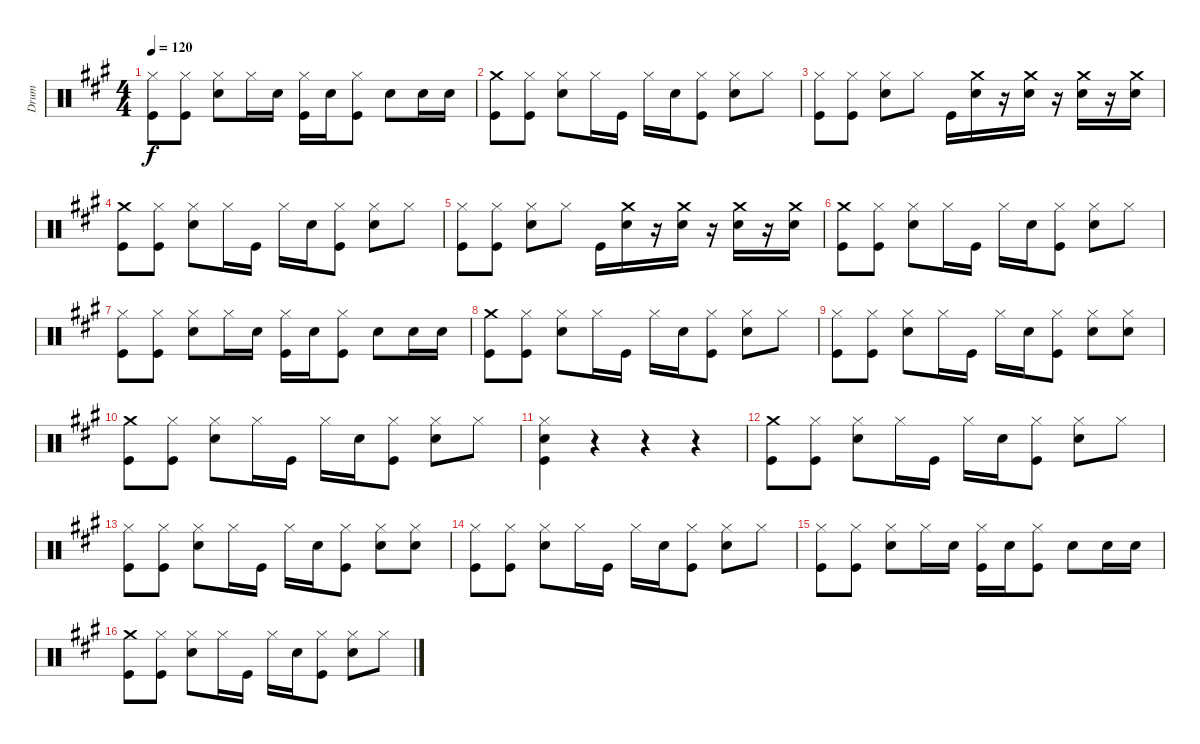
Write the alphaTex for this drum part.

\track ("Drum" "Drum") {instrument percussion}
\staff {score}
\articulation defaults
\ts (4 4)
\tempo 120
\clef neutral
\ks a
("Hi-Hat (closed)" "Kick (hit)").8{dy f} ("Hi-Hat (closed)" "Kick (hit)").8 ("Hi-Hat (closed)" "Snare (hit) 2").8 "Hi-Hat (closed)".16 "Snare (hit) 2".16 ("Hi-Hat (closed)" "Kick (hit)").16 "Snare (hit) 2".16 ("Hi-Hat (closed)" "Kick (hit)").8 "Snare (hit) 2".8 "Snare (hit) 2".16 "Snare (hit) 2".16 |
("Crash medium (hit)" "Kick (hit)").8 ("Hi-Hat (closed)" "Kick (hit)").8 ("Hi-Hat (closed)" "Snare (hit) 2").8 "Hi-Hat (closed)".16 "Kick (hit)".16 "Hi-Hat (closed)".16 "Snare (hit) 2".16 ("Hi-Hat (closed)" "Kick (hit)").8 ("Hi-Hat (closed)" "Snare (hit) 2").8 "Hi-Hat (closed)".8 |
("Hi-Hat (closed)" "Kick (hit)").8 ("Hi-Hat (closed)" "Kick (hit)").8 ("Hi-Hat (closed)" "Snare (hit) 2").8 "Hi-Hat (closed)".8 "Kick (hit)".16 ("Crash medium (hit)" "Snare (hit) 2").16 r.16 ("Crash medium (hit)" "Snare (hit) 2").16 r.16 ("Crash medium (hit)" "Snare (hit) 2").16 r.16 ("Crash medium (hit)" "Snare (hit) 2").16 |
("Crash medium (hit)" "Kick (hit)").8 ("Hi-Hat (closed)" "Kick (hit)").8 ("Hi-Hat (closed)" "Snare (hit) 2").8 "Hi-Hat (closed)".16 "Kick (hit)".16 "Hi-Hat (closed)".16 "Snare (hit) 2".16 ("Hi-Hat (closed)" "Kick (hit)").8 ("Hi-Hat (closed)" "Snare (hit) 2").8 "Hi-Hat (closed)".8 |
("Hi-Hat (closed)" "Kick (hit)").8 ("Hi-Hat (closed)" "Kick (hit)").8 ("Hi-Hat (closed)" "Snare (hit) 2").8 "Hi-Hat (closed)".8 "Kick (hit)".16 ("Crash medium (hit)" "Snare (hit) 2").16 r.16 ("Crash medium (hit)" "Snare (hit) 2").16 r.16 ("Crash medium (hit)" "Snare (hit) 2").16 r.16 ("Crash medium (hit)" "Snare (hit) 2").16 |
("Crash medium (hit)" "Kick (hit)").8 ("Hi-Hat (closed)" "Kick (hit)").8 ("Hi-Hat (closed)" "Snare (hit) 2").8 "Hi-Hat (closed)".16 "Kick (hit)".16 "Hi-Hat (closed)".16 "Snare (hit) 2".16 ("Hi-Hat (closed)" "Kick (hit)").8 ("Hi-Hat (closed)" "Snare (hit) 2").8 "Hi-Hat (closed)".8 |
("Hi-Hat (closed)" "Kick (hit)").8 ("Hi-Hat (closed)" "Kick (hit)").8 ("Hi-Hat (closed)" "Snare (hit) 2").8 "Hi-Hat (closed)".16 "Snare (hit) 2".16 ("Hi-Hat (closed)" "Kick (hit)").16 "Snare (hit) 2".16 ("Hi-Hat (closed)" "Kick (hit)").8 "Snare (hit) 2".8 "Snare (hit) 2".16 "Snare (hit) 2".16 |
("Crash medium (hit)" "Kick (hit)").8 ("Hi-Hat (closed)" "Kick (hit)").8 ("Hi-Hat (closed)" "Snare (hit) 2").8 "Hi-Hat (closed)".16 "Kick (hit)".16 "Hi-Hat (closed)".16 "Snare (hit) 2".16 ("Hi-Hat (closed)" "Kick (hit)").8 ("Hi-Hat (closed)" "Snare (hit) 2").8 "Hi-Hat (closed)".8 |
("Hi-Hat (closed)" "Kick (hit)").8 ("Hi-Hat (closed)" "Kick (hit)").8 ("Hi-Hat (closed)" "Snare (hit) 2").8 "Hi-Hat (closed)".16 "Kick (hit)".16 "Hi-Hat (closed)".16 "Snare (hit) 2".16 ("Hi-Hat (closed)" "Kick (hit)").8 ("Hi-Hat (closed)" "Snare (hit) 2").8 ("Hi-Hat (closed)" "Snare (hit) 2").8 |
("Crash medium (hit)" "Kick (hit)").8 ("Hi-Hat (closed)" "Kick (hit)").8 ("Hi-Hat (closed)" "Snare (hit) 2").8 "Hi-Hat (closed)".16 "Kick (hit)".16 "Hi-Hat (closed)".16 "Snare (hit) 2".16 ("Hi-Hat (closed)" "Kick (hit)").8 ("Hi-Hat (closed)" "Snare (hit) 2").8 "Hi-Hat (closed)".8 |
("Hi-Hat (closed)" "Snare (hit) 2" "Kick (hit)").4 r.4 r.4 r.4 |
("Crash medium (hit)" "Kick (hit)").8 ("Hi-Hat (closed)" "Kick (hit)").8 ("Hi-Hat (closed)" "Snare (hit) 2").8 "Hi-Hat (closed)".16 "Kick (hit)".16 "Hi-Hat (closed)".16 "Snare (hit) 2".16 ("Hi-Hat (closed)" "Kick (hit)").8 ("Hi-Hat (closed)" "Snare (hit) 2").8 "Hi-Hat (closed)".8 |
("Hi-Hat (closed)" "Kick (hit)").8 ("Hi-Hat (closed)" "Kick (hit)").8 ("Hi-Hat (closed)" "Snare (hit) 2").8 "Hi-Hat (closed)".16 "Kick (hit)".16 "Hi-Hat (closed)".16 "Snare (hit) 2".16 ("Hi-Hat (closed)" "Kick (hit)").8 ("Hi-Hat (closed)" "Snare (hit) 2").8 ("Hi-Hat (closed)" "Snare (hit) 2").8 |
("Hi-Hat (closed)" "Kick (hit)").8 ("Hi-Hat (closed)" "Kick (hit)").8 ("Hi-Hat (closed)" "Snare (hit) 2").8 "Hi-Hat (closed)".16 "Kick (hit)".16 "Hi-Hat (closed)".16 "Snare (hit) 2".16 ("Hi-Hat (closed)" "Kick (hit)").8 ("Hi-Hat (closed)" "Snare (hit) 2").8 "Hi-Hat (closed)".8 |
("Hi-Hat (closed)" "Kick (hit)").8 ("Hi-Hat (closed)" "Kick (hit)").8 ("Hi-Hat (closed)" "Snare (hit) 2").8 "Hi-Hat (closed)".16 "Snare (hit) 2".16 ("Hi-Hat (closed)" "Kick (hit)").16 "Snare (hit) 2".16 ("Hi-Hat (closed)" "Kick (hit)").8 "Snare (hit) 2".8 "Snare (hit) 2".16 "Snare (hit) 2".16 |
("Crash medium (hit)" "Kick (hit)").8 ("Hi-Hat (closed)" "Kick (hit)").8 ("Hi-Hat (closed)" "Snare (hit) 2").8 "Hi-Hat (closed)".16 "Kick (hit)".16 "Hi-Hat (closed)".16 "Snare (hit) 2".16 ("Hi-Hat (closed)" "Kick (hit)").8 ("Hi-Hat (closed)" "Snare (hit) 2").8 "Hi-Hat (closed)".8
